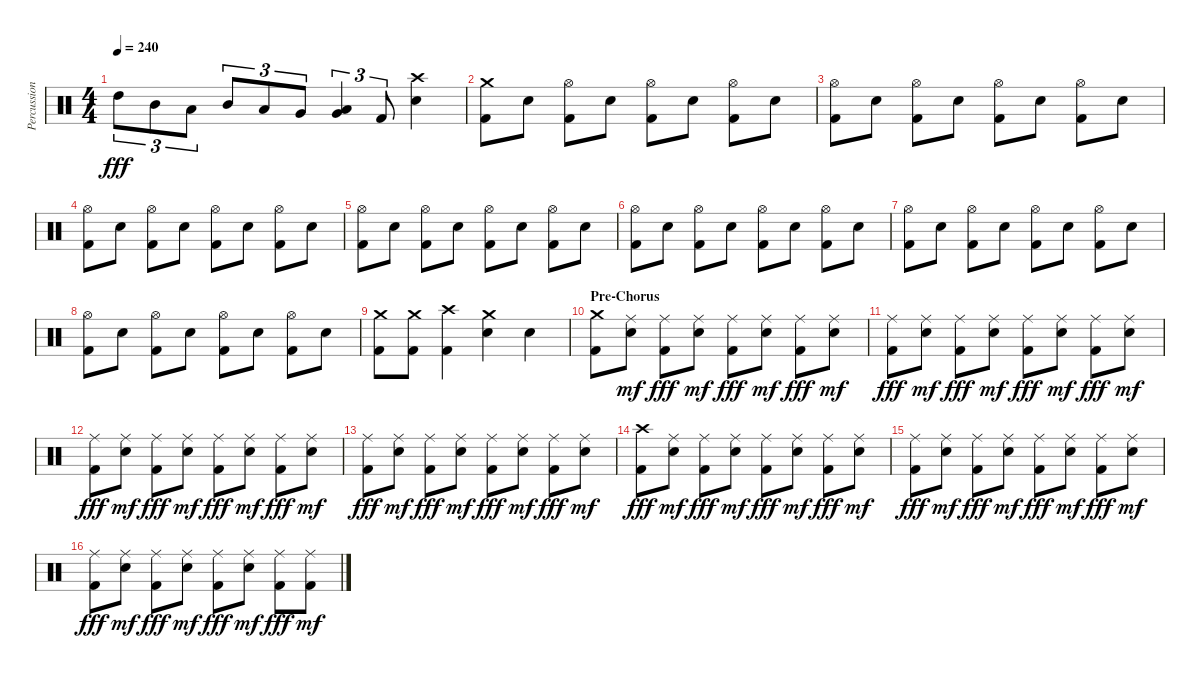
\track ("Percussion" "Percussion") {instrument percussion}
\staff {score}
\articulation defaults
\ts (4 4)
\tempo 240
\clef neutral
\ks c "High Tom (hit)".8{tu (3 2) dy fff} "Mid Tom (hit)".8{tu (3 2)} "Low Tom (hit)".8{tu (3 2)} "Mid Tom (hit)".8{tu (3 2)} "Low Tom (hit)".8{tu (3 2)} "Very Low Tom (hit)".8{tu (3 2)}
("Low Tom (hit)" "Very Low Tom (hit)").4{tu (3 2)} "Kick (hit) 2".8{tu (3 2)} ("Electric Snare (hit)" "Crash high (hit)").4 |
("Kick (hit) 2" "Crash medium (hit)").8 "Electric Snare (hit)".8 ("Kick (hit) 2" "Hi-Hat (open)").8 "Electric Snare (hit)".8 ("Kick (hit) 2" "Hi-Hat (open)").8 "Electric Snare (hit)".8 ("Kick (hit) 2" "Hi-Hat (open)").8 "Electric Snare (hit)".8 |
("Kick (hit) 2" "Hi-Hat (open)").8 "Electric Snare (hit)".8 ("Kick (hit) 2" "Hi-Hat (open)").8 "Electric Snare (hit)".8 ("Kick (hit) 2" "Hi-Hat (open)").8 "Electric Snare (hit)".8 ("Kick (hit) 2" "Hi-Hat (open)").8 "Electric Snare (hit)".8 |
("Kick (hit) 2" "Hi-Hat (open)").8 "Electric Snare (hit)".8 ("Kick (hit) 2" "Hi-Hat (open)").8 "Electric Snare (hit)".8 ("Kick (hit) 2" "Hi-Hat (open)").8 "Electric Snare (hit)".8 ("Kick (hit) 2" "Hi-Hat (open)").8 "Electric Snare (hit)".8 |
("Kick (hit) 2" "Hi-Hat (open)").8 "Electric Snare (hit)".8 ("Kick (hit) 2" "Hi-Hat (open)").8 "Electric Snare (hit)".8 ("Kick (hit) 2" "Hi-Hat (open)").8 "Electric Snare (hit)".8 ("Kick (hit) 2" "Hi-Hat (open)").8 "Electric Snare (hit)".8 |
("Kick (hit) 2" "Hi-Hat (open)").8 "Electric Snare (hit)".8 ("Kick (hit) 2" "Hi-Hat (open)").8 "Electric Snare (hit)".8 ("Kick (hit) 2" "Hi-Hat (open)").8 "Electric Snare (hit)".8 ("Kick (hit) 2" "Hi-Hat (open)").8 "Electric Snare (hit)".8 |
("Kick (hit) 2" "Hi-Hat (open)").8 "Electric Snare (hit)".8 ("Kick (hit) 2" "Hi-Hat (open)").8 "Electric Snare (hit)".8 ("Kick (hit) 2" "Hi-Hat (open)").8 "Electric Snare (hit)".8 ("Kick (hit) 2" "Hi-Hat (open)").8 "Electric Snare (hit)".8 |
("Kick (hit) 2" "Hi-Hat (open)").8 "Electric Snare (hit)".8 ("Kick (hit) 2" "Hi-Hat (open)").8 "Electric Snare (hit)".8 ("Kick (hit) 2" "Hi-Hat (open)").8 "Electric Snare (hit)".8 ("Kick (hit) 2" "Hi-Hat (open)").8 "Electric Snare (hit)".8 |
("Kick (hit) 2" "Crash medium (hit)").8 ("Kick (hit) 2" "Crash medium (hit)").8 ("Kick (hit) 2" "Crash high (hit)").4 ("Electric Snare (hit)" "Crash medium (hit)").4 "Electric Snare (hit)".4 |
\section ("" "Pre-Chorus")
("Kick (hit) 2" "Crash medium (hit)").8 ("Electric Snare (hit)" "Ride (middle)").8{dy mf} ("Kick (hit) 2" "Ride (middle)").8{dy fff} ("Electric Snare (hit)" "Ride (middle)").8{dy mf} ("Kick (hit) 2" "Ride (middle)").8{dy fff} ("Electric Snare (hit)" "Ride (middle)").8{dy mf} ("Kick (hit) 2" "Ride (middle)").8{dy fff} ("Electric Snare (hit)" "Ride (middle)").8{dy mf} |
("Kick (hit) 2" "Ride (middle)").8{dy fff} ("Electric Snare (hit)" "Ride (middle)").8{dy mf} ("Kick (hit) 2" "Ride (middle)").8{dy fff} ("Electric Snare (hit)" "Ride (middle)").8{dy mf} ("Kick (hit) 2" "Ride (middle)").8{dy fff} ("Electric Snare (hit)" "Ride (middle)").8{dy mf} ("Kick (hit) 2" "Ride (middle)").8{dy fff} ("Electric Snare (hit)" "Ride (middle)").8{dy mf} |
("Kick (hit) 2" "Ride (middle)").8{dy fff} ("Electric Snare (hit)" "Ride (middle)").8{dy mf} ("Kick (hit) 2" "Ride (middle)").8{dy fff} ("Electric Snare (hit)" "Ride (middle)").8{dy mf} ("Kick (hit) 2" "Ride (middle)").8{dy fff} ("Electric Snare (hit)" "Ride (middle)").8{dy mf} ("Kick (hit) 2" "Ride (middle)").8{dy fff} ("Electric Snare (hit)" "Ride (middle)").8{dy mf} |
("Kick (hit) 2" "Ride (middle)").8{dy fff} ("Electric Snare (hit)" "Ride (middle)").8{dy mf} ("Kick (hit) 2" "Ride (middle)").8{dy fff} ("Electric Snare (hit)" "Ride (middle)").8{dy mf} ("Kick (hit) 2" "Ride (middle)").8{dy fff} ("Electric Snare (hit)" "Ride (middle)").8{dy mf} ("Kick (hit) 2" "Ride (middle)").8{dy fff} ("Electric Snare (hit)" "Ride (middle)").8{dy mf} |
("Kick (hit) 2" "Crash high (hit)").8{dy fff} ("Electric Snare (hit)" "Ride (middle)").8{dy mf} ("Kick (hit) 2" "Ride (middle)").8{dy fff} ("Electric Snare (hit)" "Ride (middle)").8{dy mf} ("Kick (hit) 2" "Ride (middle)").8{dy fff} ("Electric Snare (hit)" "Ride (middle)").8{dy mf} ("Kick (hit) 2" "Ride (middle)").8{dy fff} ("Electric Snare (hit)" "Ride (middle)").8{dy mf} |
("Kick (hit) 2" "Ride (middle)").8{dy fff} ("Electric Snare (hit)" "Ride (middle)").8{dy mf} ("Kick (hit) 2" "Ride (middle)").8{dy fff} ("Electric Snare (hit)" "Ride (middle)").8{dy mf} ("Kick (hit) 2" "Ride (middle)").8{dy fff} ("Electric Snare (hit)" "Ride (middle)").8{dy mf} ("Kick (hit) 2" "Ride (middle)").8{dy fff} ("Electric Snare (hit)" "Ride (middle)").8{dy mf} |
("Kick (hit) 2" "Ride (middle)").8{dy fff} ("Electric Snare (hit)" "Ride (middle)").8{dy mf} ("Kick (hit) 2" "Ride (middle)").8{dy fff} ("Electric Snare (hit)" "Ride (middle)").8{dy mf} ("Kick (hit) 2" "Ride (middle)").8{dy fff} ("Electric Snare (hit)" "Ride (middle)").8{dy mf} ("Kick (hit) 2" "Ride (middle)").8{dy fff} ("Kick (hit) 2" "Ride (middle)").8{dy mf}
